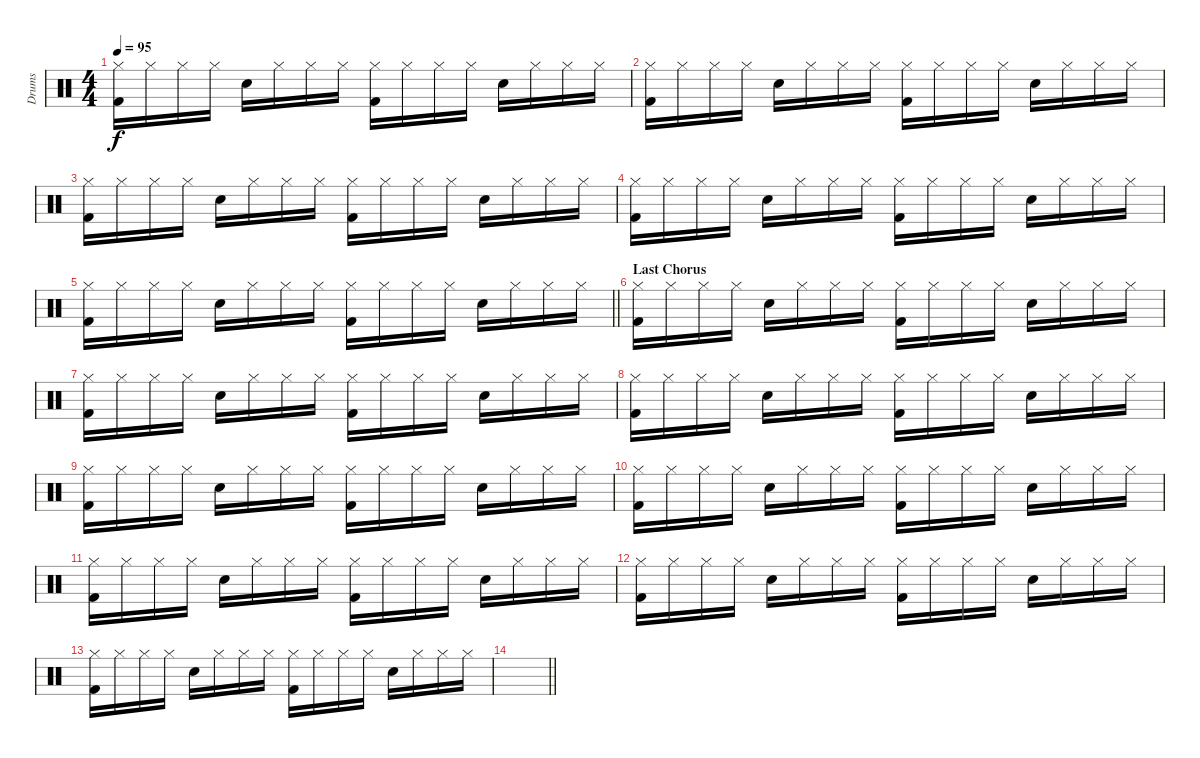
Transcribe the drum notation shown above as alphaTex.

\track ("Drums" "Drums") {instrument percussion}
\staff {score}
\articulation defaults
\ts (4 4)
\tempo 95
\clef neutral
\ks c
("Hi-Hat (closed)" "Kick (hit) 2").16{dy f} "Hi-Hat (closed)".16 "Hi-Hat (closed)".16 "Hi-Hat (closed)".16 "Snare (hit) 2".16 "Hi-Hat (closed)".16 "Hi-Hat (closed)".16 "Hi-Hat (closed)".16 ("Hi-Hat (closed)" "Kick (hit) 2").16 "Hi-Hat (closed)".16 "Hi-Hat (closed)".16 "Hi-Hat (closed)".16 "Snare (hit) 2".16 "Hi-Hat (closed)".16 "Hi-Hat (closed)".16 "Hi-Hat (closed)".16 |
("Hi-Hat (closed)" "Kick (hit) 2").16 "Hi-Hat (closed)".16 "Hi-Hat (closed)".16 "Hi-Hat (closed)".16 "Snare (hit) 2".16 "Hi-Hat (closed)".16 "Hi-Hat (closed)".16 "Hi-Hat (closed)".16 ("Hi-Hat (closed)" "Kick (hit) 2").16 "Hi-Hat (closed)".16 "Hi-Hat (closed)".16 "Hi-Hat (closed)".16 "Snare (hit) 2".16 "Hi-Hat (closed)".16 "Hi-Hat (closed)".16 "Hi-Hat (closed)".16 |
("Hi-Hat (closed)" "Kick (hit) 2").16 "Hi-Hat (closed)".16 "Hi-Hat (closed)".16 "Hi-Hat (closed)".16 "Snare (hit) 2".16 "Hi-Hat (closed)".16 "Hi-Hat (closed)".16 "Hi-Hat (closed)".16 ("Hi-Hat (closed)" "Kick (hit) 2").16 "Hi-Hat (closed)".16 "Hi-Hat (closed)".16 "Hi-Hat (closed)".16 "Snare (hit) 2".16 "Hi-Hat (closed)".16 "Hi-Hat (closed)".16 "Hi-Hat (closed)".16 |
("Hi-Hat (closed)" "Kick (hit) 2").16 "Hi-Hat (closed)".16 "Hi-Hat (closed)".16 "Hi-Hat (closed)".16 "Snare (hit) 2".16 "Hi-Hat (closed)".16 "Hi-Hat (closed)".16 "Hi-Hat (closed)".16 ("Hi-Hat (closed)" "Kick (hit) 2").16 "Hi-Hat (closed)".16 "Hi-Hat (closed)".16 "Hi-Hat (closed)".16 "Snare (hit) 2".16 "Hi-Hat (closed)".16 "Hi-Hat (closed)".16 "Hi-Hat (closed)".16 |
\barLineRight lightlight
("Hi-Hat (closed)" "Kick (hit) 2").16 "Hi-Hat (closed)".16 "Hi-Hat (closed)".16 "Hi-Hat (closed)".16 "Snare (hit) 2".16 "Hi-Hat (closed)".16 "Hi-Hat (closed)".16 "Hi-Hat (closed)".16 ("Hi-Hat (closed)" "Kick (hit) 2").16 "Hi-Hat (closed)".16 "Hi-Hat (closed)".16 "Hi-Hat (closed)".16 "Snare (hit) 2".16 "Hi-Hat (closed)".16 "Hi-Hat (closed)".16 "Hi-Hat (closed)".16 |
\section ("" "Last Chorus")
("Hi-Hat (closed)" "Kick (hit) 2").16 "Hi-Hat (closed)".16 "Hi-Hat (closed)".16 "Hi-Hat (closed)".16 "Snare (hit) 2".16 "Hi-Hat (closed)".16 "Hi-Hat (closed)".16 "Hi-Hat (closed)".16 ("Hi-Hat (closed)" "Kick (hit) 2").16 "Hi-Hat (closed)".16 "Hi-Hat (closed)".16 "Hi-Hat (closed)".16 "Snare (hit) 2".16 "Hi-Hat (closed)".16 "Hi-Hat (closed)".16 "Hi-Hat (closed)".16 |
("Hi-Hat (closed)" "Kick (hit) 2").16 "Hi-Hat (closed)".16 "Hi-Hat (closed)".16 "Hi-Hat (closed)".16 "Snare (hit) 2".16 "Hi-Hat (closed)".16 "Hi-Hat (closed)".16 "Hi-Hat (closed)".16 ("Hi-Hat (closed)" "Kick (hit) 2").16 "Hi-Hat (closed)".16 "Hi-Hat (closed)".16 "Hi-Hat (closed)".16 "Snare (hit) 2".16 "Hi-Hat (closed)".16 "Hi-Hat (closed)".16 "Hi-Hat (closed)".16 |
("Hi-Hat (closed)" "Kick (hit) 2").16 "Hi-Hat (closed)".16 "Hi-Hat (closed)".16 "Hi-Hat (closed)".16 "Snare (hit) 2".16 "Hi-Hat (closed)".16 "Hi-Hat (closed)".16 "Hi-Hat (closed)".16 ("Hi-Hat (closed)" "Kick (hit) 2").16 "Hi-Hat (closed)".16 "Hi-Hat (closed)".16 "Hi-Hat (closed)".16 "Snare (hit) 2".16 "Hi-Hat (closed)".16 "Hi-Hat (closed)".16 "Hi-Hat (closed)".16 |
("Hi-Hat (closed)" "Kick (hit) 2").16 "Hi-Hat (closed)".16 "Hi-Hat (closed)".16 "Hi-Hat (closed)".16 "Snare (hit) 2".16 "Hi-Hat (closed)".16 "Hi-Hat (closed)".16 "Hi-Hat (closed)".16 ("Hi-Hat (closed)" "Kick (hit) 2").16 "Hi-Hat (closed)".16 "Hi-Hat (closed)".16 "Hi-Hat (closed)".16 "Snare (hit) 2".16 "Hi-Hat (closed)".16 "Hi-Hat (closed)".16 "Hi-Hat (closed)".16 |
("Hi-Hat (closed)" "Kick (hit) 2").16 "Hi-Hat (closed)".16 "Hi-Hat (closed)".16 "Hi-Hat (closed)".16 "Snare (hit) 2".16 "Hi-Hat (closed)".16 "Hi-Hat (closed)".16 "Hi-Hat (closed)".16 ("Hi-Hat (closed)" "Kick (hit) 2").16 "Hi-Hat (closed)".16 "Hi-Hat (closed)".16 "Hi-Hat (closed)".16 "Snare (hit) 2".16 "Hi-Hat (closed)".16 "Hi-Hat (closed)".16 "Hi-Hat (closed)".16 |
("Hi-Hat (closed)" "Kick (hit) 2").16 "Hi-Hat (closed)".16 "Hi-Hat (closed)".16 "Hi-Hat (closed)".16 "Snare (hit) 2".16 "Hi-Hat (closed)".16 "Hi-Hat (closed)".16 "Hi-Hat (closed)".16 ("Hi-Hat (closed)" "Kick (hit) 2").16 "Hi-Hat (closed)".16 "Hi-Hat (closed)".16 "Hi-Hat (closed)".16 "Snare (hit) 2".16 "Hi-Hat (closed)".16 "Hi-Hat (closed)".16 "Hi-Hat (closed)".16 |
("Hi-Hat (closed)" "Kick (hit) 2").16 "Hi-Hat (closed)".16 "Hi-Hat (closed)".16 "Hi-Hat (closed)".16 "Snare (hit) 2".16 "Hi-Hat (closed)".16 "Hi-Hat (closed)".16 "Hi-Hat (closed)".16 ("Hi-Hat (closed)" "Kick (hit) 2").16 "Hi-Hat (closed)".16 "Hi-Hat (closed)".16 "Hi-Hat (closed)".16 "Snare (hit) 2".16 "Hi-Hat (closed)".16 "Hi-Hat (closed)".16 "Hi-Hat (closed)".16 |
("Hi-Hat (closed)" "Kick (hit) 2").16 "Hi-Hat (closed)".16 "Hi-Hat (closed)".16 "Hi-Hat (closed)".16 "Snare (hit) 2".16 "Hi-Hat (closed)".16 "Hi-Hat (closed)".16 "Hi-Hat (closed)".16 ("Hi-Hat (closed)" "Kick (hit) 2").16 "Hi-Hat (closed)".16 "Hi-Hat (closed)".16 "Hi-Hat (closed)".16 "Snare (hit) 2".16 "Hi-Hat (closed)".16 "Hi-Hat (closed)".16 "Hi-Hat (closed)".16 |
\barLineRight lightlight
